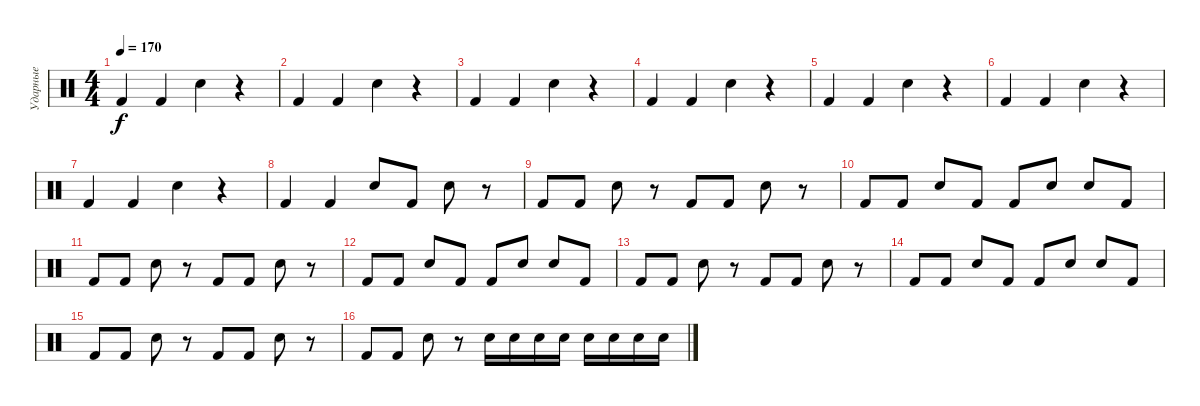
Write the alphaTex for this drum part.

\track ("Ударные" "Ударные") {instrument percussion}
\staff {score}
\articulation defaults
\ts (4 4)
\tempo 170
\clef neutral
\ks c "Kick (hit) 2".4{dy f} "Kick (hit) 2".4 "Snare (hit) 2".4
r.4 |
"Kick (hit) 2".4 "Kick (hit) 2".4 "Snare (hit) 2".4 r.4 |
"Kick (hit) 2".4 "Kick (hit) 2".4 "Snare (hit) 2".4 r.4 |
"Kick (hit) 2".4 "Kick (hit) 2".4 "Snare (hit) 2".4 r.4 |
"Kick (hit) 2".4 "Kick (hit) 2".4 "Snare (hit) 2".4 r.4 |
"Kick (hit) 2".4 "Kick (hit) 2".4 "Snare (hit) 2".4 r.4 |
"Kick (hit) 2".4 "Kick (hit) 2".4 "Snare (hit) 2".4 r.4 |
"Kick (hit) 2".4 "Kick (hit) 2".4 "Snare (hit) 2".8 "Kick (hit) 2".8 "Snare (hit) 2".8 r.8 |
"Kick (hit) 2".8 "Kick (hit) 2".8 "Snare (hit) 2".8 r.8 "Kick (hit) 2".8 "Kick (hit) 2".8 "Snare (hit) 2".8 r.8 |
"Kick (hit) 2".8 "Kick (hit) 2".8 "Snare (hit) 2".8 "Kick (hit) 2".8 "Kick (hit) 2".8 "Snare (hit) 2".8 "Snare (hit) 2".8 "Kick (hit) 2".8 |
"Kick (hit) 2".8 "Kick (hit) 2".8 "Snare (hit) 2".8 r.8 "Kick (hit) 2".8 "Kick (hit) 2".8 "Snare (hit) 2".8 r.8 |
"Kick (hit) 2".8 "Kick (hit) 2".8 "Snare (hit) 2".8 "Kick (hit) 2".8 "Kick (hit) 2".8 "Snare (hit) 2".8 "Snare (hit) 2".8 "Kick (hit) 2".8 |
"Kick (hit) 2".8 "Kick (hit) 2".8 "Snare (hit) 2".8 r.8 "Kick (hit) 2".8 "Kick (hit) 2".8 "Snare (hit) 2".8 r.8 |
"Kick (hit) 2".8 "Kick (hit) 2".8 "Snare (hit) 2".8 "Kick (hit) 2".8 "Kick (hit) 2".8 "Snare (hit) 2".8 "Snare (hit) 2".8 "Kick (hit) 2".8 |
"Kick (hit) 2".8 "Kick (hit) 2".8 "Snare (hit) 2".8 r.8 "Kick (hit) 2".8 "Kick (hit) 2".8 "Snare (hit) 2".8 r.8 |
"Kick (hit) 2".8 "Kick (hit) 2".8 "Snare (hit) 2".8 r.8 "Snare (hit) 2".16 "Snare (hit) 2".16 "Snare (hit) 2".16 "Snare (hit) 2".16 "Snare (hit) 2".16 "Snare (hit) 2".16 "Snare (hit) 2".16 "Snare (hit) 2".16
